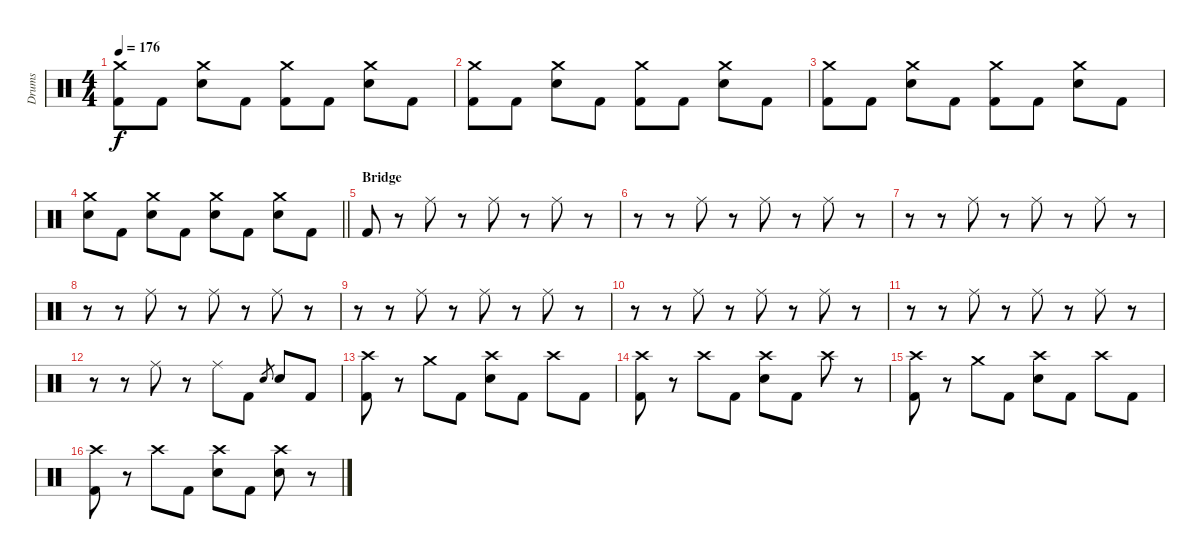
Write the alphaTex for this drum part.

\track ("Drums" "Drums") {instrument percussion}
\staff {score}
\articulation defaults
\ts (4 4)
\tempo 176
\clef neutral
\ks c
("Crash medium (hit)" "Kick (hit) 2").8{dy f} "Kick (hit) 2".8 ("Crash medium (hit)" "Electric Snare (hit)").8 "Kick (hit) 2".8 ("Crash medium (hit)" "Kick (hit) 2").8 "Kick (hit) 2".8 ("Crash medium (hit)" "Electric Snare (hit)").8 "Kick (hit) 2".8 |
("Crash medium (hit)" "Kick (hit) 2").8 "Kick (hit) 2".8 ("Crash medium (hit)" "Electric Snare (hit)").8 "Kick (hit) 2".8 ("Crash medium (hit)" "Kick (hit) 2").8 "Kick (hit) 2".8 ("Crash medium (hit)" "Electric Snare (hit)").8 "Kick (hit) 2".8 |
("Crash medium (hit)" "Kick (hit) 2").8 "Kick (hit) 2".8 ("Crash medium (hit)" "Electric Snare (hit)").8 "Kick (hit) 2".8 ("Crash medium (hit)" "Kick (hit) 2").8 "Kick (hit) 2".8 ("Crash medium (hit)" "Electric Snare (hit)").8 "Kick (hit) 2".8 |
\barLineRight lightlight
("Crash medium (hit)" "Electric Snare (hit)").8 "Kick (hit) 2".8 ("Crash medium (hit)" "Electric Snare (hit)").8 "Kick (hit) 2".8 ("Crash medium (hit)" "Electric Snare (hit)").8 "Kick (hit) 2".8 ("Crash medium (hit)" "Electric Snare (hit)").8 "Kick (hit) 2".8 |
\section ("" "Bridge")
"Kick (hit) 2".8 r.8 "Ride (middle)".8 r.8 "Ride (middle)".8 r.8 "Ride (middle)".8 r.8 |
r.8 r.8 "Ride (middle)".8 r.8 "Ride (middle)".8 r.8 "Ride (middle)".8 r.8 |
r.8 r.8 "Ride (middle)".8 r.8 "Ride (middle)".8 r.8 "Ride (middle)".8 r.8 |
r.8 r.8 "Ride (middle)".8 r.8 "Ride (middle)".8 r.8 "Ride (middle)".8 r.8 |
r.8 r.8 "Ride (middle)".8 r.8 "Ride (middle)".8 r.8 "Ride (middle)".8 r.8 |
r.8 r.8 "Ride (middle)".8 r.8 "Ride (middle)".8 r.8 "Ride (middle)".8 r.8 |
r.8 r.8 "Ride (middle)".8 r.8 "Ride (middle)".8 r.8 "Ride (middle)".8 r.8 |
r.8 r.8 "Ride (middle)".8 r.8 "Ride (middle)".8 "Kick (hit) 2".8 "Electric Snare (hit)".8{gr} "Electric Snare (hit)".8 "Kick (hit) 2".8 |
("Crash high (hit)" "Kick (hit) 2").8 r.8 "Crash medium (hit)".8 "Kick (hit) 2".8 ("Crash high (hit)" "Electric Snare (hit)").8 "Kick (hit) 2".8 "Crash high (hit)".8 "Kick (hit) 2".8 |
("Crash high (hit)" "Kick (hit) 2").8 r.8 "Crash high (hit)".8 "Kick (hit) 2".8 ("Crash high (hit)" "Electric Snare (hit)").8 "Kick (hit) 2".8 "Crash high (hit)".8 r.8 |
("Crash high (hit)" "Kick (hit) 2").8 r.8 "Crash medium (hit)".8 "Kick (hit) 2".8 ("Crash high (hit)" "Electric Snare (hit)").8 "Kick (hit) 2".8 "Crash high (hit)".8 "Kick (hit) 2".8 |
("Crash high (hit)" "Kick (hit) 2").8 r.8 "Crash high (hit)".8 "Kick (hit) 2".8 ("Crash high (hit)" "Electric Snare (hit)").8 "Kick (hit) 2".8 ("Crash high (hit)" "Electric Snare (hit)").8 r.8
